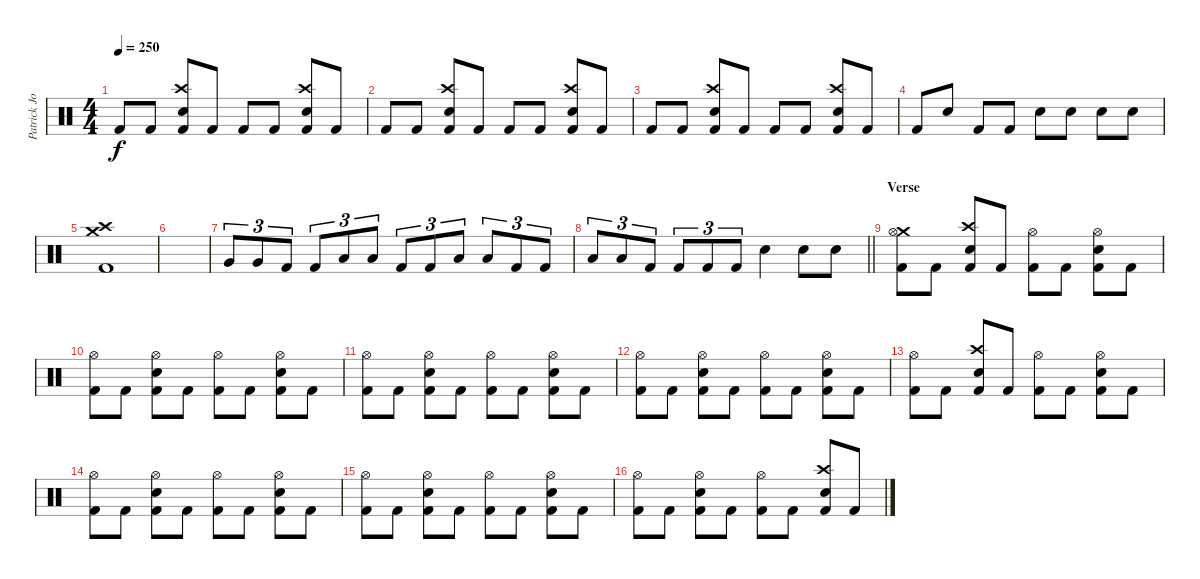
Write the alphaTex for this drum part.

\track ("Patrick Johansson" "Patrick Jo") {instrument percussion}
\staff {score}
\articulation defaults
\ts (4 4)
\tempo 250
\clef neutral
\ks c "Kick (hit) 2".8{dy f} "Kick (hit) 2".8
("Crash high (hit)" "Snare (hit) 2" "Kick (hit) 2").8 "Kick (hit) 2".8 "Kick (hit) 2".8 "Kick (hit) 2".8 ("Crash high (hit)" "Snare (hit) 2" "Kick (hit) 2").8 "Kick (hit) 2".8 |
"Kick (hit) 2".8 "Kick (hit) 2".8 ("Crash high (hit)" "Snare (hit) 2" "Kick (hit) 2").8 "Kick (hit) 2".8 "Kick (hit) 2".8 "Kick (hit) 2".8 ("Crash high (hit)" "Snare (hit) 2" "Kick (hit) 2").8 "Kick (hit) 2".8 |
"Kick (hit) 2".8 "Kick (hit) 2".8 ("Crash high (hit)" "Snare (hit) 2" "Kick (hit) 2").8 "Kick (hit) 2".8 "Kick (hit) 2".8 "Kick (hit) 2".8 ("Crash high (hit)" "Snare (hit) 2" "Kick (hit) 2").8 "Kick (hit) 2".8 |
"Kick (hit) 2".8 "Snare (hit) 2".8 "Kick (hit) 2".8 "Kick (hit) 2".8 "Snare (hit) 2".8 "Snare (hit) 2".8 "Snare (hit) 2".8 "Snare (hit) 2".8 |
("Crash medium (hit)" "Crash high (hit)" "Kick (hit) 2").1 |
|
"Very Low Tom (hit)".8{tu (3 2)} "Very Low Tom (hit)".8{tu (3 2)} "Kick (hit) 2".8{tu (3 2)} "Kick (hit) 2".8{tu (3 2)} "Low Floor Tom (hit)".8{tu (3 2)} "Low Floor Tom (hit)".8{tu (3 2)} "Kick (hit) 2".8{tu (3 2)} "Kick (hit) 2".8{tu (3 2)} "Low Tom (hit)".8{tu (3 2)} "Low Tom (hit)".8{tu (3 2)} "Kick (hit) 2".8{tu (3 2)} "Kick (hit) 2".8{tu (3 2)} |
\barLineRight lightlight "Low Floor Tom (hit)".8{tu (3 2)} "Low Floor Tom (hit)".8{tu (3 2)} "Kick (hit) 2".8{tu (3 2)} "Kick (hit) 2".8{tu (3 2)} "Kick (hit) 2".8{tu (3 2)} "Kick (hit) 2".8{tu (3 2)} "Snare (hit) 2".4 "Snare (hit) 2".8 "Snare (hit) 2".8
|
\section ("" "Verse")
("Crash medium (hit)" "Hi-Hat (open)" "Kick (hit) 2").8 "Kick (hit) 2".8 ("Crash high (hit)" "Snare (hit) 2" "Kick (hit) 2").8 "Kick (hit) 2".8 ("Hi-Hat (open)" "Kick (hit) 2").8 "Kick (hit) 2".8 ("Hi-Hat (open)" "Snare (hit) 2" "Kick (hit) 2").8 "Kick (hit) 2".8 |
("Hi-Hat (open)" "Kick (hit) 2").8 "Kick (hit) 2".8 ("Hi-Hat (open)" "Snare (hit) 2" "Kick (hit) 2").8 "Kick (hit) 2".8 ("Hi-Hat (open)" "Kick (hit) 2").8 "Kick (hit) 2".8 ("Hi-Hat (open)" "Snare (hit) 2" "Kick (hit) 2").8 "Kick (hit) 2".8 |
("Hi-Hat (open)" "Kick (hit) 2").8 "Kick (hit) 2".8 ("Hi-Hat (open)" "Snare (hit) 2" "Kick (hit) 2").8 "Kick (hit) 2".8 ("Hi-Hat (open)" "Kick (hit) 2").8 "Kick (hit) 2".8 ("Hi-Hat (open)" "Snare (hit) 2" "Kick (hit) 2").8 "Kick (hit) 2".8 |
("Hi-Hat (open)" "Kick (hit) 2").8 "Kick (hit) 2".8 ("Hi-Hat (open)" "Snare (hit) 2" "Kick (hit) 2").8 "Kick (hit) 2".8 ("Hi-Hat (open)" "Kick (hit) 2").8 "Kick (hit) 2".8 ("Hi-Hat (open)" "Snare (hit) 2" "Kick (hit) 2").8 "Kick (hit) 2".8 |
("Hi-Hat (open)" "Kick (hit) 2").8 "Kick (hit) 2".8 ("Crash high (hit)" "Snare (hit) 2" "Kick (hit) 2").8 "Kick (hit) 2".8 ("Hi-Hat (open)" "Kick (hit) 2").8 "Kick (hit) 2".8 ("Hi-Hat (open)" "Snare (hit) 2" "Kick (hit) 2").8 "Kick (hit) 2".8 |
("Hi-Hat (open)" "Kick (hit) 2").8 "Kick (hit) 2".8 ("Hi-Hat (open)" "Snare (hit) 2" "Kick (hit) 2").8 "Kick (hit) 2".8 ("Hi-Hat (open)" "Kick (hit) 2").8 "Kick (hit) 2".8 ("Hi-Hat (open)" "Snare (hit) 2" "Kick (hit) 2").8 "Kick (hit) 2".8 |
("Hi-Hat (open)" "Kick (hit) 2").8 "Kick (hit) 2".8 ("Hi-Hat (open)" "Snare (hit) 2" "Kick (hit) 2").8 "Kick (hit) 2".8 ("Hi-Hat (open)" "Kick (hit) 2").8 "Kick (hit) 2".8 ("Hi-Hat (open)" "Snare (hit) 2" "Kick (hit) 2").8 "Kick (hit) 2".8 |
("Hi-Hat (open)" "Kick (hit) 2").8 "Kick (hit) 2".8 ("Hi-Hat (open)" "Snare (hit) 2" "Kick (hit) 2").8 "Kick (hit) 2".8 ("Hi-Hat (open)" "Kick (hit) 2").8 "Kick (hit) 2".8 ("Crash high (hit)" "Snare (hit) 2" "Kick (hit) 2").8 "Kick (hit) 2".8
